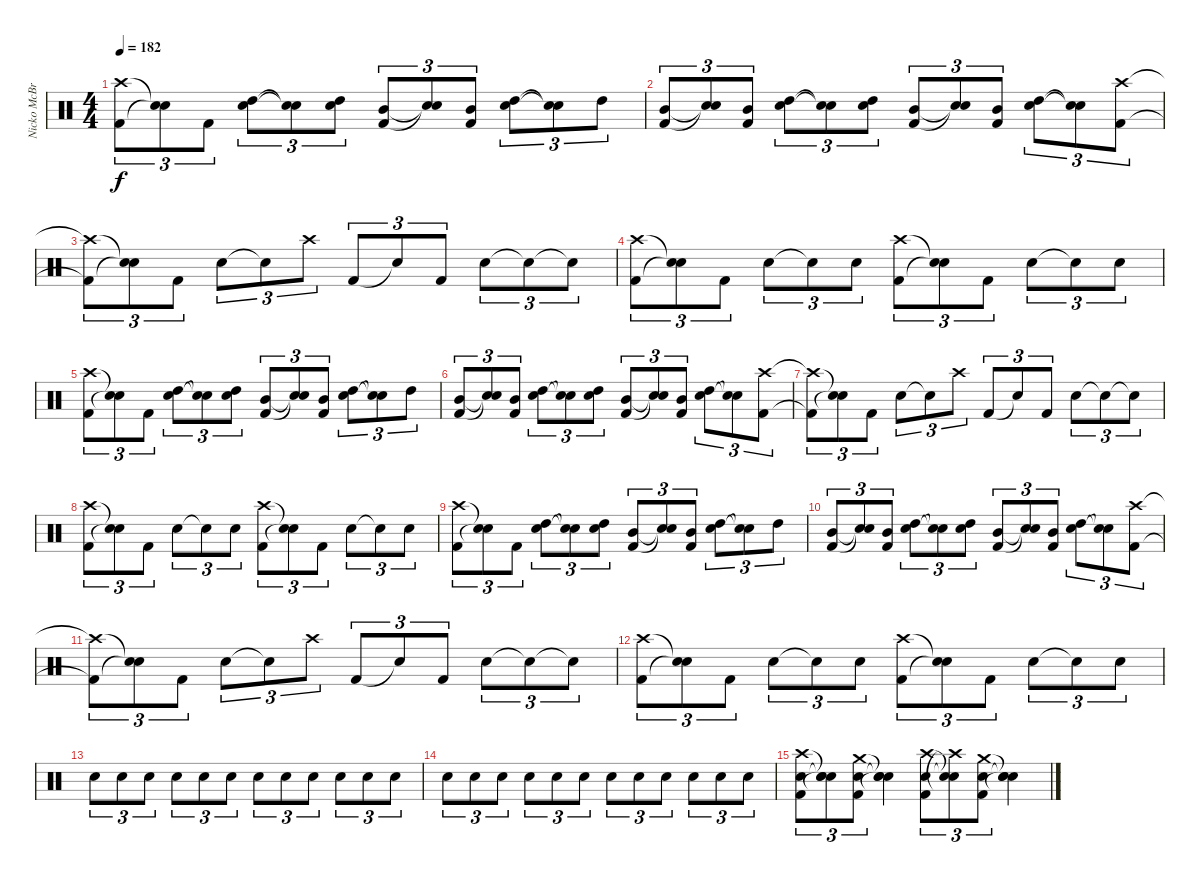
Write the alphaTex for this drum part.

\track ("Nicko McBrain" "Nicko McBr") {instrument percussion}
\staff {score}
\articulation defaults
\ts (4 4)
\tempo 182
\clef neutral
\ks c
("Kick (hit) 2" "Crash high (hit)").8{tu (3 2) dy f} ("Snare (hit)"{t} "Snare (hit)"{t}).8{tu (3 2)} "Kick (hit) 2".8{tu (3 2)} ("High Tom (hit)" "Snare (hit) 2").8{tu (3 2)} ("Snare (hit)"{t} "Snare (hit)"{t}).8{tu (3 2)} ("High Tom (hit)" "Snare (hit) 2").8{tu (3 2)} ("Mid Tom (hit)" "Kick (hit) 2").8{tu (3 2)} ("Snare (hit)"{t} "Snare (hit)"{t}).8{tu (3 2)} ("Mid Tom (hit)" "Kick (hit) 2").8{tu (3 2)} ("High Tom (hit)" "Snare (hit) 2").8{tu (3 2)} ("Snare (hit)"{t} "Snare (hit)"{t}).8{tu (3 2)} "High Tom (hit)".8{tu (3 2)} |
("Mid Tom (hit)" "Kick (hit) 2").8{tu (3 2)} ("Snare (hit)"{t} "Snare (hit)"{t}).8{tu (3 2)} ("Mid Tom (hit)" "Kick (hit) 2").8{tu (3 2)} ("High Tom (hit)" "Snare (hit) 2").8{tu (3 2)} ("Snare (hit)"{t} "Snare (hit)"{t}).8{tu (3 2)} ("High Tom (hit)" "Snare (hit) 2").8{tu (3 2)} ("Mid Tom (hit)" "Kick (hit) 2").8{tu (3 2)} ("Snare (hit)"{t} "Snare (hit)"{t}).8{tu (3 2)} ("Mid Tom (hit)" "Kick (hit) 2").8{tu (3 2)} ("High Tom (hit)" "Snare (hit) 2").8{tu (3 2)} ("Snare (hit)"{t} "Snare (hit)"{t}).8{tu (3 2)} ("Kick (hit) 2" "Crash high (hit)").8{tu (3 2)} |
("Kick (hit) 2"{t} "Crash high (hit)"{t}).8{tu (3 2)} ("Snare (hit)"{t} "Snare (hit)"{t}).8{tu (3 2)} "Kick (hit) 2".8{tu (3 2)} "Snare (hit) 2".8{tu (3 2)} "Snare (hit)"{t}.8{tu (3 2)} "Crash high (hit)".8{tu (3 2)} "Kick (hit) 2".8{tu (3 2)} "Snare (hit)"{t}.8{tu (3 2)} "Kick (hit) 2".8{tu (3 2)} "Snare (hit) 2".8{tu (3 2)} "Snare (hit)"{t}.8{tu (3 2)} "Snare (hit)"{t}.8{tu (3 2)} |
("Kick (hit) 2" "Crash high (hit)").8{tu (3 2)} ("Snare (hit)"{t} "Snare (hit)"{t}).8{tu (3 2)} "Kick (hit) 2".8{tu (3 2)} "Snare (hit) 2".8{tu (3 2)} "Snare (hit)"{t}.8{tu (3 2)} "Snare (hit) 2".8{tu (3 2)} ("Kick (hit) 2" "Crash high (hit)").8{tu (3 2)} ("Snare (hit)"{t} "Snare (hit)"{t}).8{tu (3 2)} "Kick (hit) 2".8{tu (3 2)} "Snare (hit) 2".8{tu (3 2)} "Snare (hit)"{t}.8{tu (3 2)} "Snare (hit) 2".8{tu (3 2)} |
("Kick (hit) 2" "Crash high (hit)").8{tu (3 2)} ("Snare (hit)"{t} "Snare (hit)"{t}).8{tu (3 2)} "Kick (hit) 2".8{tu (3 2)} ("High Tom (hit)" "Snare (hit) 2").8{tu (3 2)} ("Snare (hit)"{t} "Snare (hit)"{t}).8{tu (3 2)} ("High Tom (hit)" "Snare (hit) 2").8{tu (3 2)} ("Mid Tom (hit)" "Kick (hit) 2").8{tu (3 2)} ("Snare (hit)"{t} "Snare (hit)"{t}).8{tu (3 2)} ("Mid Tom (hit)" "Kick (hit) 2").8{tu (3 2)} ("High Tom (hit)" "Snare (hit) 2").8{tu (3 2)} ("Snare (hit)"{t} "Snare (hit)"{t}).8{tu (3 2)} "High Tom (hit)".8{tu (3 2)} |
("Mid Tom (hit)" "Kick (hit) 2").8{tu (3 2)} ("Snare (hit)"{t} "Snare (hit)"{t}).8{tu (3 2)} ("Mid Tom (hit)" "Kick (hit) 2").8{tu (3 2)} ("High Tom (hit)" "Snare (hit) 2").8{tu (3 2)} ("Snare (hit)"{t} "Snare (hit)"{t}).8{tu (3 2)} ("High Tom (hit)" "Snare (hit) 2").8{tu (3 2)} ("Mid Tom (hit)" "Kick (hit) 2").8{tu (3 2)} ("Snare (hit)"{t} "Snare (hit)"{t}).8{tu (3 2)} ("Mid Tom (hit)" "Kick (hit) 2").8{tu (3 2)} ("High Tom (hit)" "Snare (hit) 2").8{tu (3 2)} ("Snare (hit)"{t} "Snare (hit)"{t}).8{tu (3 2)} ("Kick (hit) 2" "Crash high (hit)").8{tu (3 2)} |
("Kick (hit) 2"{t} "Crash high (hit)"{t}).8{tu (3 2)} ("Snare (hit)"{t} "Snare (hit)"{t}).8{tu (3 2)} "Kick (hit) 2".8{tu (3 2)} "Snare (hit) 2".8{tu (3 2)} "Snare (hit)"{t}.8{tu (3 2)} "Crash high (hit)".8{tu (3 2)} "Kick (hit) 2".8{tu (3 2)} "Snare (hit)"{t}.8{tu (3 2)} "Kick (hit) 2".8{tu (3 2)} "Snare (hit) 2".8{tu (3 2)} "Snare (hit)"{t}.8{tu (3 2)} "Snare (hit)"{t}.8{tu (3 2)} |
("Kick (hit) 2" "Crash high (hit)").8{tu (3 2)} ("Snare (hit)"{t} "Snare (hit)"{t}).8{tu (3 2)} "Kick (hit) 2".8{tu (3 2)} "Snare (hit) 2".8{tu (3 2)} "Snare (hit)"{t}.8{tu (3 2)} "Snare (hit) 2".8{tu (3 2)} ("Kick (hit) 2" "Crash high (hit)").8{tu (3 2)} ("Snare (hit)"{t} "Snare (hit)"{t}).8{tu (3 2)} "Kick (hit) 2".8{tu (3 2)} "Snare (hit) 2".8{tu (3 2)} "Snare (hit)"{t}.8{tu (3 2)} "Snare (hit) 2".8{tu (3 2)} |
("Kick (hit) 2" "Crash high (hit)").8{tu (3 2)} ("Snare (hit)"{t} "Snare (hit)"{t}).8{tu (3 2)} "Kick (hit) 2".8{tu (3 2)} ("High Tom (hit)" "Snare (hit) 2").8{tu (3 2)} ("Snare (hit)"{t} "Snare (hit)"{t}).8{tu (3 2)} ("High Tom (hit)" "Snare (hit) 2").8{tu (3 2)} ("Mid Tom (hit)" "Kick (hit) 2").8{tu (3 2)} ("Snare (hit)"{t} "Snare (hit)"{t}).8{tu (3 2)} ("Mid Tom (hit)" "Kick (hit) 2").8{tu (3 2)} ("High Tom (hit)" "Snare (hit) 2").8{tu (3 2)} ("Snare (hit)"{t} "Snare (hit)"{t}).8{tu (3 2)} "High Tom (hit)".8{tu (3 2)} |
("Mid Tom (hit)" "Kick (hit) 2").8{tu (3 2)} ("Snare (hit)"{t} "Snare (hit)"{t}).8{tu (3 2)} ("Mid Tom (hit)" "Kick (hit) 2").8{tu (3 2)} ("High Tom (hit)" "Snare (hit) 2").8{tu (3 2)} ("Snare (hit)"{t} "Snare (hit)"{t}).8{tu (3 2)} ("High Tom (hit)" "Snare (hit) 2").8{tu (3 2)} ("Mid Tom (hit)" "Kick (hit) 2").8{tu (3 2)} ("Snare (hit)"{t} "Snare (hit)"{t}).8{tu (3 2)} ("Mid Tom (hit)" "Kick (hit) 2").8{tu (3 2)} ("High Tom (hit)" "Snare (hit) 2").8{tu (3 2)} ("Snare (hit)"{t} "Snare (hit)"{t}).8{tu (3 2)} ("Kick (hit) 2" "Crash high (hit)").8{tu (3 2)} |
("Kick (hit) 2"{t} "Crash high (hit)"{t}).8{tu (3 2)} ("Snare (hit)"{t} "Snare (hit)"{t}).8{tu (3 2)} "Kick (hit) 2".8{tu (3 2)} "Snare (hit) 2".8{tu (3 2)} "Snare (hit)"{t}.8{tu (3 2)} "Crash high (hit)".8{tu (3 2)} "Kick (hit) 2".8{tu (3 2)} "Snare (hit)"{t}.8{tu (3 2)} "Kick (hit) 2".8{tu (3 2)} "Snare (hit) 2".8{tu (3 2)} "Snare (hit)"{t}.8{tu (3 2)} "Snare (hit)"{t}.8{tu (3 2)} |
("Kick (hit) 2" "Crash high (hit)").8{tu (3 2)} ("Snare (hit)"{t} "Snare (hit)"{t}).8{tu (3 2)} "Kick (hit) 2".8{tu (3 2)} "Snare (hit) 2".8{tu (3 2)} "Snare (hit)"{t}.8{tu (3 2)} "Snare (hit) 2".8{tu (3 2)} ("Kick (hit) 2" "Crash high (hit)").8{tu (3 2)} ("Snare (hit)"{t} "Snare (hit)"{t}).8{tu (3 2)} "Kick (hit) 2".8{tu (3 2)} "Snare (hit) 2".8{tu (3 2)} "Snare (hit)"{t}.8{tu (3 2)} "Snare (hit) 2".8{tu (3 2)} |
"Snare (hit) 2".8{tu (3 2)} "Snare (hit) 2".8{tu (3 2)} "Snare (hit) 2".8{tu (3 2)} "Snare (hit) 2".8{tu (3 2)} "Snare (hit) 2".8{tu (3 2)} "Snare (hit) 2".8{tu (3 2)} "Snare (hit) 2".8{tu (3 2)} "Snare (hit) 2".8{tu (3 2)} "Snare (hit) 2".8{tu (3 2)} "Snare (hit) 2".8{tu (3 2)} "Snare (hit) 2".8{tu (3 2)} "Snare (hit) 2".8{tu (3 2)} |
"Snare (hit) 2".8{tu (3 2)} "Snare (hit) 2".8{tu (3 2)} "Snare (hit) 2".8{tu (3 2)} "Snare (hit) 2".8{tu (3 2)} "Snare (hit) 2".8{tu (3 2)} "Snare (hit) 2".8{tu (3 2)} "Snare (hit) 2".8{tu (3 2)} "Snare (hit) 2".8{tu (3 2)} "Snare (hit) 2".8{tu (3 2)} "Snare (hit) 2".8{tu (3 2)} "Snare (hit) 2".8{tu (3 2)} "Snare (hit) 2".8{tu (3 2)} |
("Snare (hit) 2" "Kick (hit) 2" "Crash high (hit)").8{tu (3 2)} ("Snare (hit)"{t} "Snare (hit)"{t} "Snare (hit)"{t}).8{tu (3 2)} ("Snare (hit) 2" "Kick (hit) 2" "Crash medium (hit)").8{tu (3 2)} ("Snare (hit)"{t} "Snare (hit)"{t} "Snare (hit)"{t}).4 ("Snare (hit) 2" "Kick (hit) 2" "Crash high (hit)").8{tu (3 2)} ("Snare (hit) 2"{t} "Crash high (hit)"{t} "Snare (hit)"{t}).8{tu (3 2)} ("Snare (hit) 2" "Kick (hit) 2" "Crash medium (hit)").8{tu (3 2)} ("Snare (hit)"{t} "Snare (hit)"{t} "Snare (hit)"{t}).4
